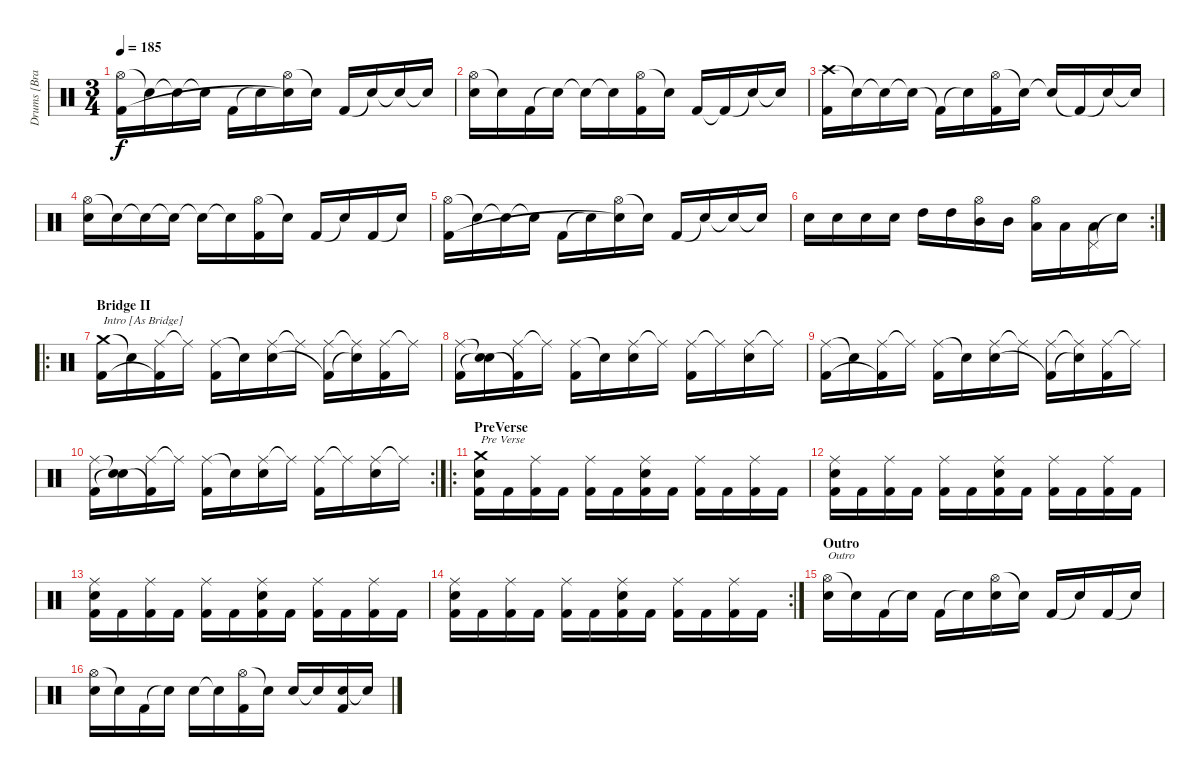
\track ("Drums [Brann Dailor]" "Drums [Bra") {instrument percussion}
\staff {score}
\articulation defaults
\ts (3 4)
\tempo 185
\clef neutral
\ks c
("Hi-Hat (open)" "Kick (hit) 2").16{dy f} "Snare (hit)"{t}.16 "Snare (hit)"{t}.16 "Snare (hit)"{t}.16 "Kick (hit) 2".16 "Snare (hit)"{t}.16 ("Hi-Hat (open)" "Snare (hit)"{t}).16 "Snare (hit)"{t}.16 "Kick (hit) 2".16 "Snare (hit)"{t}.16 "Snare (hit)"{t}.16 "Snare (hit)"{t}.16 |
("Hi-Hat (open)" "Electric Snare (hit)").16 "Snare (hit)"{t}.16 "Kick (hit) 2".16 "Snare (hit)"{t}.16 "Snare (hit)"{t}.16 "Snare (hit)"{t}.16 ("Hi-Hat (open)" "Kick (hit) 2").16 "Snare (hit)"{t}.16 "Kick (hit) 2".16 "Kick (hit) 2"{t}.16 "Snare (hit)"{t}.16 "Snare (hit)"{t}.16 |
("Crash high (hit)" "Kick (hit) 2").16 "Snare (hit)"{t}.16 "Snare (hit)"{t}.16 "Snare (hit)"{t}.16 "Kick (hit) 2"{t}.16 "Snare (hit)"{t}.16 ("Hi-Hat (open)" "Kick (hit) 2").16 "Snare (hit)"{t}.16 "Snare (hit)"{t}.16 "Kick (hit) 2"{t}.16 "Snare (hit)"{t}.16 "Snare (hit)"{t}.16 |
("Hi-Hat (open)" "Electric Snare (hit)").16 "Snare (hit)"{t}.16 "Snare (hit)"{t}.16 "Snare (hit)"{t}.16 "Snare (hit)"{t}.16 "Snare (hit)"{t}.16 ("Hi-Hat (open)" "Kick (hit) 2").16 "Snare (hit)"{t}.16 "Kick (hit) 2".16 "Snare (hit)"{t}.16 "Kick (hit) 2".16 "Snare (hit)"{t}.16 |
("Hi-Hat (open)" "Kick (hit) 2").16 "Snare (hit)"{t}.16 "Snare (hit)"{t}.16 "Snare (hit)"{t}.16 "Kick (hit) 2".16 "Snare (hit)"{t}.16 ("Hi-Hat (open)" "Snare (hit)"{t}).16 "Snare (hit)"{t}.16 "Kick (hit) 2".16 "Snare (hit)"{t}.16 "Snare (hit)"{t}.16 "Snare (hit)"{t}.16 |
\rc 2 "Electric Snare (hit)".16 "Electric Snare (hit)".16 "Electric Snare (hit)".16 "Electric Snare (hit)".16 "High Tom (hit)".16 "High Tom (hit)".16
("Hi-Hat (open)" "Mid Tom (hit)").16 "Mid Tom (hit)".16 ("Hi-Hat (open)" "Low Tom (hit)").16 "Low Tom (hit)".16 ("Pedal Hi-Hat (hit)" "Low Tom (hit)").16 "Snare (hit)"{t}.16 |
\ro
\section ("" "Bridge II")
("Crash medium (hit)" "Kick (hit) 2").16{txt "Intro [As Bridge]"} "Snare (hit)"{t}.16 ("Ride (middle)" "Kick (hit) 2"{t}).16 "Ride (middle)"{t}.16 ("Ride (middle)" "Kick (hit) 2").16 "Snare (hit)"{t}.16 ("Ride (middle)" "Electric Snare (hit)").16 "Ride (middle)"{t}.16 ("Ride (middle)" "Kick (hit) 2"{t}).16 ("Ride (middle)"{t} "Snare (hit)"{t}).16 ("Ride (middle)" "Kick (hit) 2").16 "Ride (middle)"{t}.16 |
("Ride (middle)" "Kick (hit) 2").16 ("Snare (hit)"{t} "Snare (hit)"{t}).16 ("Ride (middle)" "Kick (hit) 2"{t}).16 "Ride (middle)"{t}.16 ("Ride (middle)" "Kick (hit) 2").16 "Snare (hit)"{t}.16 ("Ride (middle)" "Electric Snare (hit)").16 "Ride (middle)"{t}.16 ("Ride (middle)" "Kick (hit) 2").16 "Ride (middle)"{t}.16 ("Ride (middle)" "Electric Snare (hit)").16 "Ride (middle)"{t}.16 |
("Ride (middle)" "Kick (hit) 2").16 "Snare (hit)"{t}.16 ("Ride (middle)" "Kick (hit) 2"{t}).16 "Ride (middle)"{t}.16 ("Ride (middle)" "Kick (hit) 2").16 "Snare (hit)"{t}.16 ("Ride (middle)" "Electric Snare (hit)").16 "Ride (middle)"{t}.16 ("Ride (middle)" "Kick (hit) 2"{t}).16 ("Ride (middle)"{t} "Snare (hit)"{t}).16 ("Ride (middle)" "Kick (hit) 2").16 "Ride (middle)"{t}.16 |
\rc 2
("Ride (middle)" "Kick (hit) 2").16 ("Snare (hit)"{t} "Snare (hit)"{t}).16 ("Ride (middle)" "Kick (hit) 2"{t}).16 "Ride (middle)"{t}.16 ("Ride (middle)" "Kick (hit) 2").16 "Snare (hit)"{t}.16 ("Ride (middle)" "Electric Snare (hit)").16 "Ride (middle)"{t}.16 ("Ride (middle)" "Kick (hit) 2").16 "Ride (middle)"{t}.16 ("Ride (middle)" "Electric Snare (hit)").16 "Ride (middle)"{t}.16 |
\ro
\section ("" "PreVerse")
("Crash medium (hit)" "Electric Snare (hit)" "Kick (hit) 2").16{txt "Pre Verse"} "Kick (hit) 2".16 ("Ride (middle)" "Kick (hit) 2").16 "Kick (hit) 2".16 ("Ride (middle)" "Kick (hit) 2").16 "Kick (hit) 2".16 ("Ride (middle)" "Electric Snare (hit)" "Kick (hit) 2").16 "Kick (hit) 2".16 ("Ride (middle)" "Kick (hit) 2").16 "Kick (hit) 2".16 ("Ride (middle)" "Kick (hit) 2").16 "Kick (hit) 2".16 |
("Ride (middle)" "Electric Snare (hit)" "Kick (hit) 2").16 "Kick (hit) 2".16 ("Ride (middle)" "Kick (hit) 2").16 "Kick (hit) 2".16 ("Ride (middle)" "Kick (hit) 2").16 "Kick (hit) 2".16 ("Ride (middle)" "Electric Snare (hit)" "Kick (hit) 2").16 "Kick (hit) 2".16 ("Ride (middle)" "Kick (hit) 2").16 "Kick (hit) 2".16 ("Ride (middle)" "Kick (hit) 2").16 "Kick (hit) 2".16 |
("Ride (middle)" "Electric Snare (hit)" "Kick (hit) 2").16 "Kick (hit) 2".16 ("Ride (middle)" "Kick (hit) 2").16 "Kick (hit) 2".16 ("Ride (middle)" "Kick (hit) 2").16 "Kick (hit) 2".16 ("Ride (middle)" "Electric Snare (hit)" "Kick (hit) 2").16 "Kick (hit) 2".16 ("Ride (middle)" "Kick (hit) 2").16 "Kick (hit) 2".16 ("Ride (middle)" "Kick (hit) 2").16 "Kick (hit) 2".16 |
\rc 2
("Ride (middle)" "Electric Snare (hit)" "Kick (hit) 2").16 "Kick (hit) 2".16 ("Ride (middle)" "Kick (hit) 2").16 "Kick (hit) 2".16 ("Ride (middle)" "Kick (hit) 2").16 "Kick (hit) 2".16 ("Ride (middle)" "Electric Snare (hit)" "Kick (hit) 2").16 "Kick (hit) 2".16 ("Ride (middle)" "Kick (hit) 2").16 "Kick (hit) 2".16 ("Ride (middle)" "Kick (hit) 2").16 "Kick (hit) 2".16 |
\section ("" "Outro")
("Hi-Hat (open)" "Electric Snare (hit)").16{txt "Outro"} "Snare (hit)"{t}.16 "Kick (hit) 2".16 "Snare (hit)"{t}.16 "Kick (hit) 2".16 "Snare (hit)"{t}.16 ("Hi-Hat (open)" "Electric Snare (hit)").16 "Snare (hit)"{t}.16 "Kick (hit) 2".16 "Snare (hit)"{t}.16 "Kick (hit) 2".16 "Snare (hit)"{t}.16 |
("Hi-Hat (open)" "Electric Snare (hit)").16 "Snare (hit)"{t}.16 "Kick (hit) 2".16 "Snare (hit)"{t}.16 "Electric Snare (hit)".16 "Snare (hit)"{t}.16 ("Hi-Hat (open)" "Kick (hit) 2").16 "Snare (hit)"{t}.16 "Electric Snare (hit)".16 "Snare (hit)"{t}.16 ("Electric Snare (hit)" "Kick (hit) 2").16 "Snare (hit)"{t}.16
